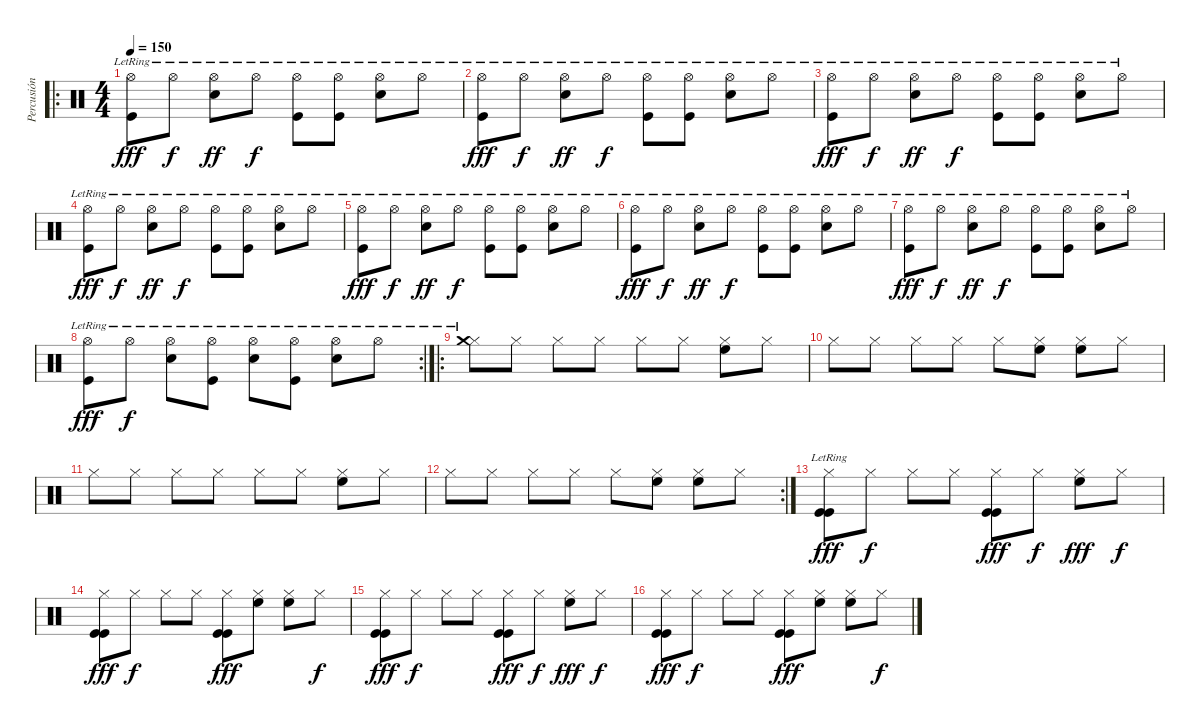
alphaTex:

\track ("Percusión" "Percusión") {instrument percussion}
\staff {score}
\articulation defaults
\ro
\ts (4 4)
\tempo 150
\clef neutral
\ks c
("Kick (hit)" "Hi-Hat (open)"{lr}).8{dy fff} "Hi-Hat (open)"{lr}.8{dy f} ("Snare (hit) 2" "Hi-Hat (open)"{lr}).8{dy ff} "Hi-Hat (open)"{lr}.8{dy f} ("Kick (hit)" "Hi-Hat (open)"{lr}).8 ("Kick (hit)" "Hi-Hat (open)"{lr}).8 ("Snare (hit) 2" "Hi-Hat (open)"{lr}).8 "Hi-Hat (open)"{lr}.8 |
("Kick (hit)" "Hi-Hat (open)"{lr}).8{dy fff} "Hi-Hat (open)"{lr}.8{dy f} ("Snare (hit) 2" "Hi-Hat (open)"{lr}).8{dy ff} "Hi-Hat (open)"{lr}.8{dy f} ("Kick (hit)" "Hi-Hat (open)"{lr}).8 ("Kick (hit)" "Hi-Hat (open)"{lr}).8 ("Snare (hit) 2" "Hi-Hat (open)"{lr}).8 "Hi-Hat (open)"{lr}.8 |
("Kick (hit)" "Hi-Hat (open)"{lr}).8{dy fff} "Hi-Hat (open)"{lr}.8{dy f} ("Snare (hit) 2" "Hi-Hat (open)"{lr}).8{dy ff} "Hi-Hat (open)"{lr}.8{dy f} ("Kick (hit)" "Hi-Hat (open)"{lr}).8 ("Kick (hit)" "Hi-Hat (open)"{lr}).8 ("Snare (hit) 2" "Hi-Hat (open)"{lr}).8 "Hi-Hat (open)"{lr}.8 |
("Kick (hit)" "Hi-Hat (open)"{lr}).8{dy fff} "Hi-Hat (open)"{lr}.8{dy f} ("Snare (hit) 2" "Hi-Hat (open)"{lr}).8{dy ff} "Hi-Hat (open)"{lr}.8{dy f} ("Kick (hit)" "Hi-Hat (open)"{lr}).8 ("Kick (hit)" "Hi-Hat (open)"{lr}).8 ("Snare (hit) 2" "Hi-Hat (open)"{lr}).8 "Hi-Hat (open)"{lr}.8 |
("Kick (hit)" "Hi-Hat (open)"{lr}).8{dy fff} "Hi-Hat (open)"{lr}.8{dy f} ("Snare (hit) 2" "Hi-Hat (open)"{lr}).8{dy ff} "Hi-Hat (open)"{lr}.8{dy f} ("Kick (hit)" "Hi-Hat (open)"{lr}).8 ("Kick (hit)" "Hi-Hat (open)"{lr}).8 ("Snare (hit) 2" "Hi-Hat (open)"{lr}).8 "Hi-Hat (open)"{lr}.8 |
("Kick (hit)" "Hi-Hat (open)"{lr}).8{dy fff} "Hi-Hat (open)"{lr}.8{dy f} ("Snare (hit) 2" "Hi-Hat (open)"{lr}).8{dy ff} "Hi-Hat (open)"{lr}.8{dy f} ("Kick (hit)" "Hi-Hat (open)"{lr}).8 ("Kick (hit)" "Hi-Hat (open)"{lr}).8 ("Snare (hit) 2" "Hi-Hat (open)"{lr}).8 "Hi-Hat (open)"{lr}.8 |
("Kick (hit)" "Hi-Hat (open)"{lr}).8{dy fff} "Hi-Hat (open)"{lr}.8{dy f} ("Snare (hit) 2" "Hi-Hat (open)"{lr}).8{dy ff} "Hi-Hat (open)"{lr}.8{dy f} ("Kick (hit)" "Hi-Hat (open)"{lr}).8 ("Kick (hit)" "Hi-Hat (open)"{lr}).8 ("Snare (hit) 2" "Hi-Hat (open)"{lr}).8 "Hi-Hat (open)"{lr}.8 |
\rc 2
("Kick (hit)" "Hi-Hat (open)"{lr}).8{dy fff} "Hi-Hat (open)"{lr}.8{dy f} ("Snare (hit) 2" "Hi-Hat (open)"{lr}).8 ("Kick (hit)" "Hi-Hat (open)"{lr}).8 ("Snare (hit) 2" "Hi-Hat (open)"{lr}).8 ("Kick (hit)" "Hi-Hat (open)"{lr}).8 ("Snare (hit) 2" "Hi-Hat (open)"{lr}).8 "Hi-Hat (open)"{lr}.8 |
\ro
("Hi-Hat (closed)" "Crash medium (hit)"{lr}).8{volume 10} "Hi-Hat (closed)".8 "Hi-Hat (closed)".8 "Hi-Hat (closed)".8 "Hi-Hat (closed)".8 "Hi-Hat (closed)".8 ("Hi-Hat (closed)" "High Floor Tom (hit)").8 "Hi-Hat (closed)".8 |
"Hi-Hat (closed)".8 "Hi-Hat (closed)".8 "Hi-Hat (closed)".8 "Hi-Hat (closed)".8 "Hi-Hat (closed)".8 ("Hi-Hat (closed)" "High Floor Tom (hit)").8 ("Hi-Hat (closed)" "High Floor Tom (hit)").8 "Hi-Hat (closed)".8 |
"Hi-Hat (closed)".8 "Hi-Hat (closed)".8 "Hi-Hat (closed)".8 "Hi-Hat (closed)".8 "Hi-Hat (closed)".8 "Hi-Hat (closed)".8 ("Hi-Hat (closed)" "High Floor Tom (hit)").8 "Hi-Hat (closed)".8 |
\rc 2 "Hi-Hat (closed)".8 "Hi-Hat (closed)".8 "Hi-Hat (closed)".8 "Hi-Hat (closed)".8 "Hi-Hat (closed)".8
("Hi-Hat (closed)" "High Floor Tom (hit)").8 ("Hi-Hat (closed)" "High Floor Tom (hit)").8 "Hi-Hat (closed)".8 |
("Hi-Hat (closed)" "Kick (hit)"{lr} "Kick (hit)").8{dy fff volume 11} "Hi-Hat (closed)".8{dy f} "Hi-Hat (closed)".8 "Hi-Hat (closed)".8 ("Hi-Hat (closed)" "Kick (hit)" "Kick (hit)").8{dy fff} "Hi-Hat (closed)".8{dy f} ("Hi-Hat (closed)" "High Floor Tom (hit)").8{dy fff} "Hi-Hat (closed)".8{dy f} |
("Hi-Hat (closed)" "Kick (hit)" "Kick (hit)").8{dy fff} "Hi-Hat (closed)".8{dy f} "Hi-Hat (closed)".8 "Hi-Hat (closed)".8 ("Hi-Hat (closed)" "Kick (hit)" "Kick (hit)").8{dy fff} ("Hi-Hat (closed)" "High Floor Tom (hit)").8 ("Hi-Hat (closed)" "High Floor Tom (hit)").8 "Hi-Hat (closed)".8{dy f} |
("Hi-Hat (closed)" "Kick (hit)" "Kick (hit)").8{dy fff volume 12} "Hi-Hat (closed)".8{dy f} "Hi-Hat (closed)".8 "Hi-Hat (closed)".8 ("Hi-Hat (closed)" "Kick (hit)" "Kick (hit)").8{dy fff} "Hi-Hat (closed)".8{dy f} ("Hi-Hat (closed)" "High Floor Tom (hit)").8{dy fff} "Hi-Hat (closed)".8{dy f} |
("Hi-Hat (closed)" "Kick (hit)" "Kick (hit)").8{dy fff} "Hi-Hat (closed)".8{dy f} "Hi-Hat (closed)".8 "Hi-Hat (closed)".8 ("Hi-Hat (closed)" "Kick (hit)" "Kick (hit)").8{dy fff} ("Hi-Hat (closed)" "High Floor Tom (hit)").8 ("Hi-Hat (closed)" "High Floor Tom (hit)").8 "Hi-Hat (closed)".8{dy f}
